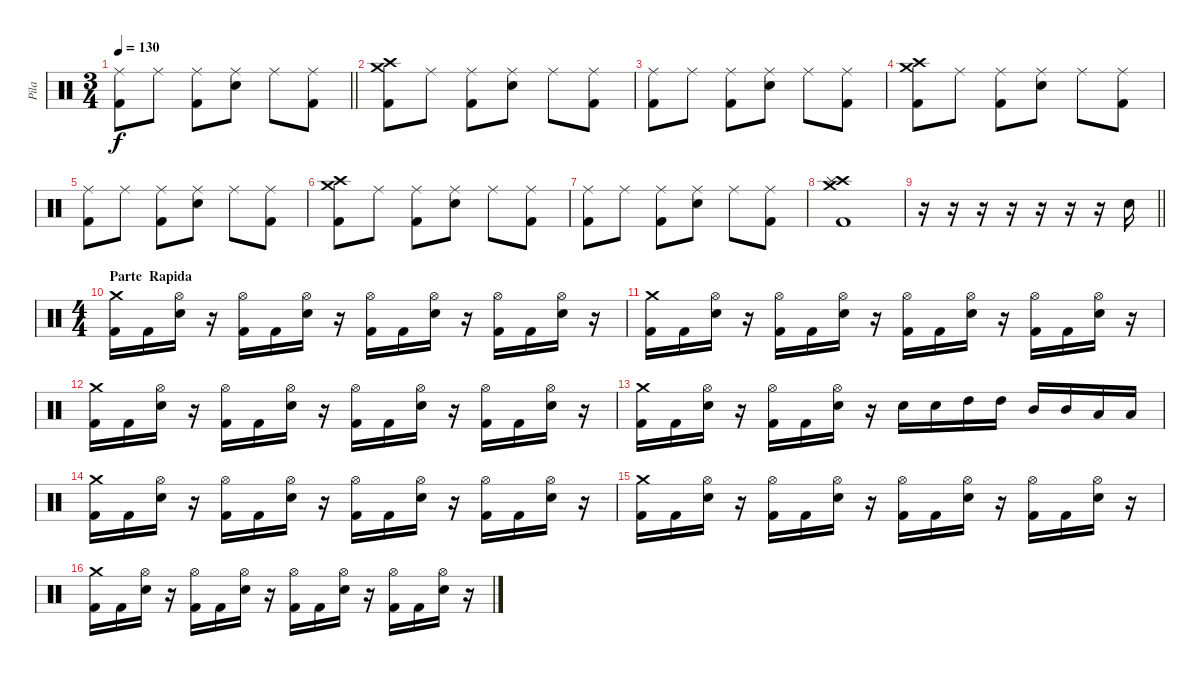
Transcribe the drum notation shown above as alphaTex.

\track ("Pila" "Pila") {instrument percussion}
\staff {score}
\articulation defaults
\ts (3 4)
\tempo 130
\clef neutral
\barLineRight lightlight
\ks c
("Ride (middle)" "Kick (hit) 2").8{dy f} "Ride (middle)".8 ("Ride (middle)" "Kick (hit) 2").8 ("Ride (middle)" "Electric Snare (hit)").8 "Ride (middle)".8 ("Ride (middle)" "Kick (hit) 2").8 |
("Crash high (hit)" "Crash medium (hit)" "Kick (hit) 2").8 "Ride (middle)".8 ("Ride (middle)" "Kick (hit) 2").8 ("Ride (middle)" "Electric Snare (hit)").8 "Ride (middle)".8 ("Ride (middle)" "Kick (hit) 2").8 |
("Ride (middle)" "Kick (hit) 2").8 "Ride (middle)".8 ("Ride (middle)" "Kick (hit) 2").8 ("Ride (middle)" "Electric Snare (hit)").8 "Ride (middle)".8 ("Ride (middle)" "Kick (hit) 2").8 |
("Crash high (hit)" "Crash medium (hit)" "Kick (hit) 2").8 "Ride (middle)".8 ("Ride (middle)" "Kick (hit) 2").8 ("Ride (middle)" "Electric Snare (hit)").8 "Ride (middle)".8 ("Ride (middle)" "Kick (hit) 2").8 |
("Ride (middle)" "Kick (hit) 2").8 "Ride (middle)".8 ("Ride (middle)" "Kick (hit) 2").8 ("Ride (middle)" "Electric Snare (hit)").8 "Ride (middle)".8 ("Ride (middle)" "Kick (hit) 2").8 |
("Crash high (hit)" "Crash medium (hit)" "Kick (hit) 2").8 "Ride (middle)".8 ("Ride (middle)" "Kick (hit) 2").8 ("Ride (middle)" "Electric Snare (hit)").8 "Ride (middle)".8 ("Ride (middle)" "Kick (hit) 2").8 |
("Ride (middle)" "Kick (hit) 2").8 "Ride (middle)".8 ("Ride (middle)" "Kick (hit) 2").8 ("Ride (middle)" "Electric Snare (hit)").8 "Ride (middle)".8 ("Ride (middle)" "Kick (hit) 2").8 |
("Crash high (hit)" "Splash (hit)" "Crash medium (hit)" "Kick (hit) 2").1 |
\barLineRight lightlight
r.16 r.16 r.16 r.16 r.16 r.16 r.16 "Electric Snare (hit)".16 |
\ts (4 4)
\section ("" "Parte  Rapida")
("Crash medium (hit)" "Kick (hit) 2").16 "Kick (hit) 2".16 ("Hi-Hat (open)" "Electric Snare (hit)").16 r.16 ("Hi-Hat (open)" "Kick (hit) 2").16 "Kick (hit) 2".16 ("Hi-Hat (open)" "Electric Snare (hit)").16 r.16 ("Hi-Hat (open)" "Kick (hit) 2").16 "Kick (hit) 2".16 ("Hi-Hat (open)" "Electric Snare (hit)").16 r.16 ("Hi-Hat (open)" "Kick (hit) 2").16 "Kick (hit) 2".16 ("Hi-Hat (open)" "Electric Snare (hit)").16 r.16 |
("Crash medium (hit)" "Kick (hit) 2").16 "Kick (hit) 2".16 ("Hi-Hat (open)" "Electric Snare (hit)").16 r.16 ("Hi-Hat (open)" "Kick (hit) 2").16 "Kick (hit) 2".16 ("Hi-Hat (open)" "Electric Snare (hit)").16 r.16 ("Hi-Hat (open)" "Kick (hit) 2").16 "Kick (hit) 2".16 ("Hi-Hat (open)" "Electric Snare (hit)").16 r.16 ("Hi-Hat (open)" "Kick (hit) 2").16 "Kick (hit) 2".16 ("Hi-Hat (open)" "Electric Snare (hit)").16 r.16 |
("Crash medium (hit)" "Kick (hit) 2").16 "Kick (hit) 2".16 ("Hi-Hat (open)" "Electric Snare (hit)").16 r.16 ("Hi-Hat (open)" "Kick (hit) 2").16 "Kick (hit) 2".16 ("Hi-Hat (open)" "Electric Snare (hit)").16 r.16 ("Hi-Hat (open)" "Kick (hit) 2").16 "Kick (hit) 2".16 ("Hi-Hat (open)" "Electric Snare (hit)").16 r.16 ("Hi-Hat (open)" "Kick (hit) 2").16 "Kick (hit) 2".16 ("Hi-Hat (open)" "Electric Snare (hit)").16 r.16 |
("Crash medium (hit)" "Kick (hit) 2").16 "Kick (hit) 2".16 ("Hi-Hat (open)" "Electric Snare (hit)").16 r.16 ("Hi-Hat (open)" "Kick (hit) 2").16 "Kick (hit) 2".16 ("Hi-Hat (open)" "Electric Snare (hit)").16 r.16 "Electric Snare (hit)".16 "Electric Snare (hit)".16 "High Tom (hit)".16 "High Tom (hit)".16 "Mid Tom (hit)".16 "Mid Tom (hit)".16 "Low Tom (hit)".16 "Low Tom (hit)".16 |
("Crash medium (hit)" "Kick (hit) 2").16 "Kick (hit) 2".16 ("Hi-Hat (open)" "Electric Snare (hit)").16 r.16 ("Hi-Hat (open)" "Kick (hit) 2").16 "Kick (hit) 2".16 ("Hi-Hat (open)" "Electric Snare (hit)").16 r.16 ("Hi-Hat (open)" "Kick (hit) 2").16 "Kick (hit) 2".16 ("Hi-Hat (open)" "Electric Snare (hit)").16 r.16 ("Hi-Hat (open)" "Kick (hit) 2").16 "Kick (hit) 2".16 ("Hi-Hat (open)" "Electric Snare (hit)").16 r.16 |
("Crash medium (hit)" "Kick (hit) 2").16 "Kick (hit) 2".16 ("Hi-Hat (open)" "Electric Snare (hit)").16 r.16 ("Hi-Hat (open)" "Kick (hit) 2").16 "Kick (hit) 2".16 ("Hi-Hat (open)" "Electric Snare (hit)").16 r.16 ("Hi-Hat (open)" "Kick (hit) 2").16 "Kick (hit) 2".16 ("Hi-Hat (open)" "Electric Snare (hit)").16 r.16 ("Hi-Hat (open)" "Kick (hit) 2").16 "Kick (hit) 2".16 ("Hi-Hat (open)" "Electric Snare (hit)").16 r.16 |
("Crash medium (hit)" "Kick (hit) 2").16 "Kick (hit) 2".16 ("Hi-Hat (open)" "Electric Snare (hit)").16 r.16 ("Hi-Hat (open)" "Kick (hit) 2").16 "Kick (hit) 2".16 ("Hi-Hat (open)" "Electric Snare (hit)").16 r.16 ("Hi-Hat (open)" "Kick (hit) 2").16 "Kick (hit) 2".16 ("Hi-Hat (open)" "Electric Snare (hit)").16 r.16 ("Hi-Hat (open)" "Kick (hit) 2").16 "Kick (hit) 2".16 ("Hi-Hat (open)" "Electric Snare (hit)").16 r.16
